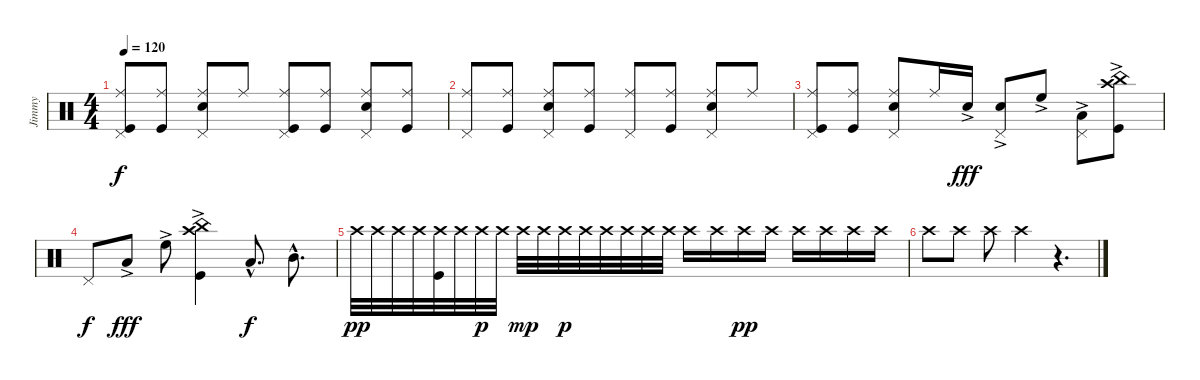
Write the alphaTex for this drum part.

\track ("Jimmy" "Jimmy") {instrument percussion}
\staff {score}
\articulation defaults
\ts (4 4)
\tempo 120
\clef neutral
\ks c
("Pedal Hi-Hat (hit)" "Ride (middle)" "Kick (hit)").8{dy f} ("Ride (middle)" "Kick (hit)").8 ("Pedal Hi-Hat (hit)" "Ride (middle)" "Snare (hit) 2").8 "Ride (middle)".8 ("Pedal Hi-Hat (hit)" "Ride (middle)" "Kick (hit)").8 ("Ride (middle)" "Kick (hit)").8 ("Pedal Hi-Hat (hit)" "Ride (middle)" "Snare (hit) 2").8 ("Ride (middle)" "Kick (hit)").8 |
("Pedal Hi-Hat (hit)" "Ride (middle)").8 ("Ride (middle)" "Kick (hit)").8 ("Pedal Hi-Hat (hit)" "Ride (middle)" "Snare (hit) 2").8 ("Ride (middle)" "Kick (hit)").8 ("Pedal Hi-Hat (hit)" "Ride (middle)").8 ("Ride (middle)" "Kick (hit)").8 ("Pedal Hi-Hat (hit)" "Ride (middle)" "Snare (hit) 2").8 "Ride (middle)".8 |
("Pedal Hi-Hat (hit)" "Ride (middle)" "Kick (hit)").8 ("Ride (middle)" "Kick (hit)").8 ("Pedal Hi-Hat (hit)" "Ride (middle)" "Snare (hit) 2").8 "Ride (middle)".16 "Snare (hit) 2"{ac}.16{dy fff} ("Pedal Hi-Hat (hit)" "Snare (hit) 2"{ac}).8 "High Floor Tom (hit)"{ac}.8 ("Pedal Hi-Hat (hit)" "Low Tom (hit)"{ac}).8 ("China (hit)"{ac} "Crash high (hit)"{ac} "Kick (hit)"{ac}).8 |
"Pedal Hi-Hat (hit)".8{dy f} "Low Tom (hit)"{ac}.8{dy fff} "High Floor Tom (hit)"{ac}.8 ("China (hit)"{ac} "Crash high (hit)" "Kick (hit)").4 "Low Tom (hit)"{hac}.8{d dy f} "Mid Tom (hit)"{hac}.8{d} |
"Crash high (hit)".32{dy pp} "Crash high (hit)".32 "Crash high (hit)".32 "Crash high (hit)".32 ("Crash high (hit)" "Kick (hit)").32 "Crash high (hit)".32 "Crash high (hit)".32{dy p} "Crash high (hit)".32 "Crash high (hit)".32{dy mp} "Crash high (hit)".32 "Crash high (hit)".32{dy p} "Crash high (hit)".32 "Crash high (hit)".32 "Crash high (hit)".32 "Crash high (hit)".32 "Crash high (hit)".32 "Crash high (hit)".16 "Crash high (hit)".16 "Crash high (hit)".16{dy pp} "Crash high (hit)".16 "Crash high (hit)".16 "Crash high (hit)".16 "Crash high (hit)".16 "Crash high (hit)".16 |
"Crash high (hit)".8 "Crash high (hit)".8 "Crash high (hit)".8 "Crash high (hit)".4 r.4{d}
